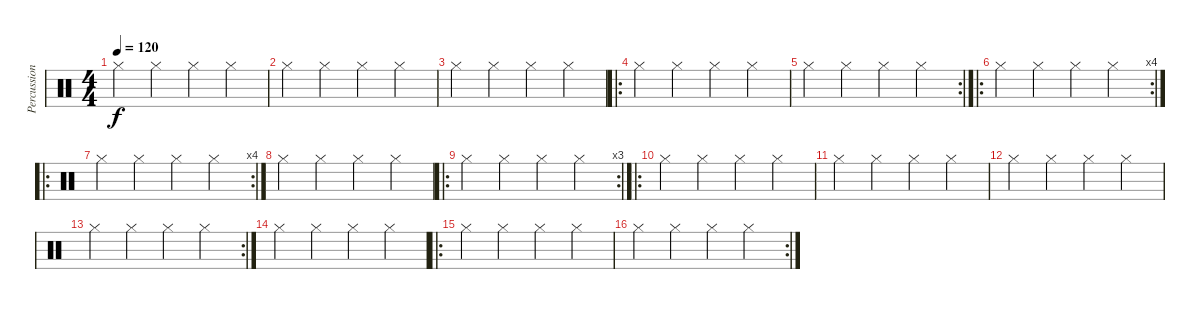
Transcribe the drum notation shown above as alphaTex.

\track ("Percussioni" "Percussion") {instrument percussion}
\staff {score}
\articulation defaults
\ts (4 4)
\tempo 120
\clef neutral
\ks c "Hi-Hat (closed)".4{dy f} "Hi-Hat (closed)".4 "Hi-Hat (closed)".4 "Hi-Hat (closed)".4
|
"Hi-Hat (closed)".4 "Hi-Hat (closed)".4 "Hi-Hat (closed)".4 "Hi-Hat (closed)".4 |
"Hi-Hat (closed)".4 "Hi-Hat (closed)".4 "Hi-Hat (closed)".4 "Hi-Hat (closed)".4 |
\ro "Hi-Hat (closed)".4 "Hi-Hat (closed)".4 "Hi-Hat (closed)".4 "Hi-Hat (closed)".4
|
\rc 2 "Hi-Hat (closed)".4 "Hi-Hat (closed)".4 "Hi-Hat (closed)".4 "Hi-Hat (closed)".4
|
\ro
\rc 4 "Hi-Hat (closed)".4 "Hi-Hat (closed)".4 "Hi-Hat (closed)".4 "Hi-Hat (closed)".4
|
\ro
\rc 4 "Hi-Hat (closed)".4 "Hi-Hat (closed)".4 "Hi-Hat (closed)".4 "Hi-Hat (closed)".4
|
"Hi-Hat (closed)".4 "Hi-Hat (closed)".4 "Hi-Hat (closed)".4 "Hi-Hat (closed)".4 |
\ro
\rc 3 "Hi-Hat (closed)".4 "Hi-Hat (closed)".4 "Hi-Hat (closed)".4 "Hi-Hat (closed)".4
|
\ro "Hi-Hat (closed)".4 "Hi-Hat (closed)".4 "Hi-Hat (closed)".4 "Hi-Hat (closed)".4
|
"Hi-Hat (closed)".4 "Hi-Hat (closed)".4 "Hi-Hat (closed)".4 "Hi-Hat (closed)".4 |
"Hi-Hat (closed)".4 "Hi-Hat (closed)".4 "Hi-Hat (closed)".4 "Hi-Hat (closed)".4 |
\rc 2 "Hi-Hat (closed)".4 "Hi-Hat (closed)".4 "Hi-Hat (closed)".4 "Hi-Hat (closed)".4
|
"Hi-Hat (closed)".4 "Hi-Hat (closed)".4 "Hi-Hat (closed)".4 "Hi-Hat (closed)".4 |
\ro "Hi-Hat (closed)".4 "Hi-Hat (closed)".4 "Hi-Hat (closed)".4 "Hi-Hat (closed)".4
|
\rc 2 "Hi-Hat (closed)".4 "Hi-Hat (closed)".4 "Hi-Hat (closed)".4 "Hi-Hat (closed)".4
